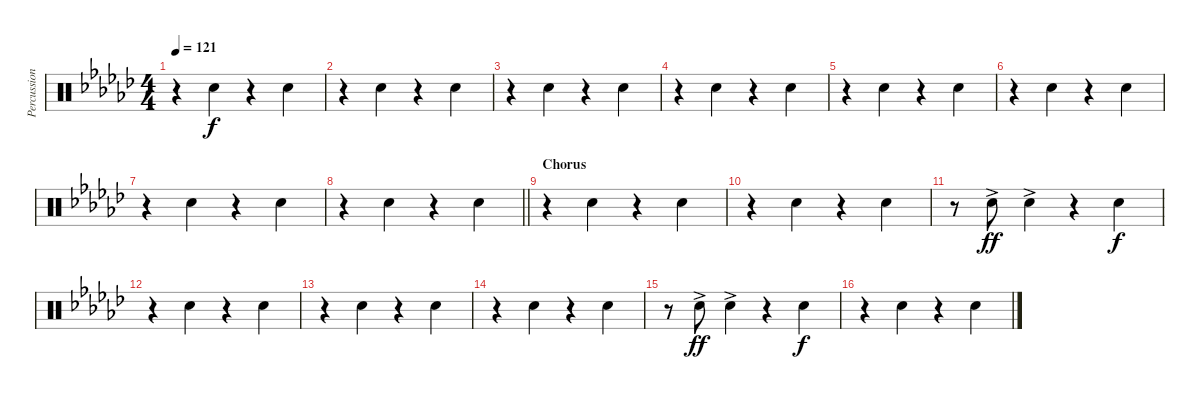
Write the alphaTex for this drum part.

\track ("Percussion" "Percussion") {instrument percussion}
\staff {score}
\articulation defaults
\ts (4 4)
\tempo 121
\clef neutral
\ks ebminor
r.4{dy f} "Hand Clap (hit)".4 r.4 "Hand Clap (hit)".4 |
r.4 "Hand Clap (hit)".4 r.4 "Hand Clap (hit)".4 |
r.4 "Hand Clap (hit)".4 r.4 "Hand Clap (hit)".4 |
r.4 "Hand Clap (hit)".4 r.4 "Hand Clap (hit)".4 |
r.4 "Hand Clap (hit)".4 r.4 "Hand Clap (hit)".4 |
r.4 "Hand Clap (hit)".4 r.4 "Hand Clap (hit)".4 |
r.4 "Hand Clap (hit)".4 r.4 "Hand Clap (hit)".4 |
\barLineRight lightlight
r.4 "Hand Clap (hit)".4 r.4 "Hand Clap (hit)".4 |
\section ("" "Chorus")
r.4 "Hand Clap (hit)".4 r.4 "Hand Clap (hit)".4 |
r.4 "Hand Clap (hit)".4 r.4 "Hand Clap (hit)".4 |
r.8 "Hand Clap (hit)"{ac}.8{dy ff} "Hand Clap (hit)"{ac}.4 r.4 "Hand Clap (hit)".4{dy f} |
r.4 "Hand Clap (hit)".4 r.4 "Hand Clap (hit)".4 |
r.4 "Hand Clap (hit)".4 r.4 "Hand Clap (hit)".4 |
r.4 "Hand Clap (hit)".4 r.4 "Hand Clap (hit)".4 |
r.8 "Hand Clap (hit)"{ac}.8{dy ff} "Hand Clap (hit)"{ac}.4 r.4 "Hand Clap (hit)".4{dy f} |
r.4 "Hand Clap (hit)".4 r.4 "Hand Clap (hit)".4
